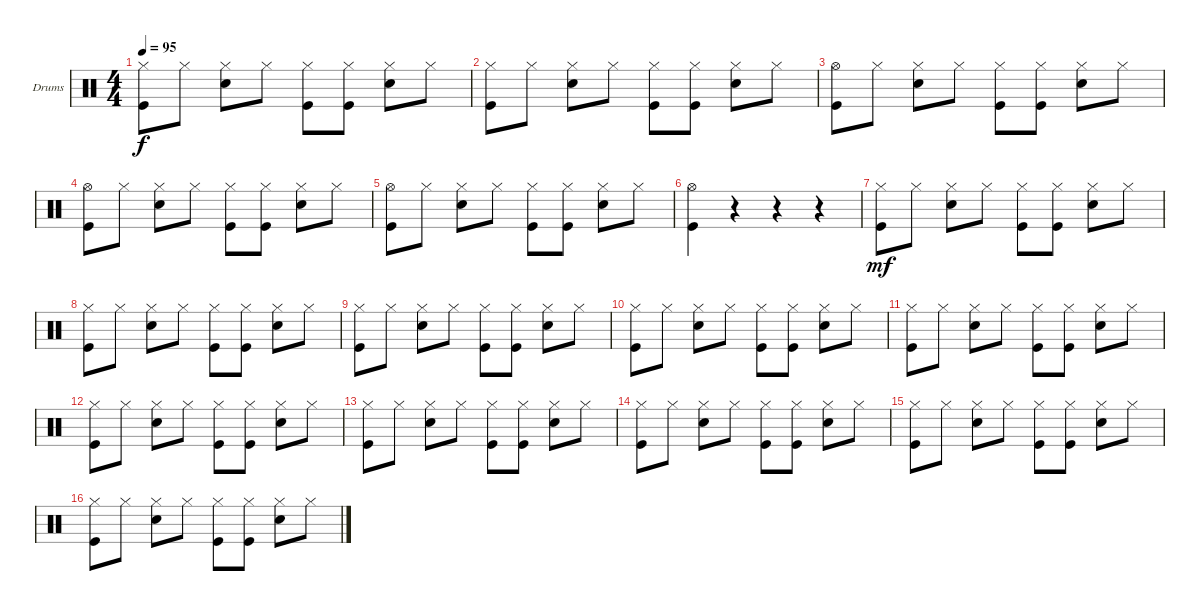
\defaultSystemsLayout 4
\bracketExtendMode groupsimilarinstruments
\firstSystemTrackNameOrientation horizontal
\otherSystemsTrackNameOrientation horizontal
\track ("Drumkit" "Drums") {instrument percussion}
\staff {score}
\articulation defaults
\ts (4 4)
\tempo 95
\clef neutral
\ks c
("Kick (hit)" "Hi-Hat (closed)").8{dy f} "Hi-Hat (closed)".8 ("Hi-Hat (closed)" "Snare (hit) 2").8 "Hi-Hat (closed)".8 ("Hi-Hat (closed)" "Kick (hit)").8 ("Hi-Hat (closed)" "Kick (hit)").8 ("Hi-Hat (closed)" "Snare (hit) 2").8 "Hi-Hat (closed)".8 |
("Kick (hit)" "Hi-Hat (closed)").8 "Hi-Hat (closed)".8 ("Hi-Hat (closed)" "Snare (hit) 2").8 "Hi-Hat (closed)".8 ("Hi-Hat (closed)" "Kick (hit)").8 ("Hi-Hat (closed)" "Kick (hit)").8 ("Hi-Hat (closed)" "Snare (hit) 2").8 "Hi-Hat (closed)".8 |
("Kick (hit)" "Hi-Hat (open)").8 "Hi-Hat (closed)".8 ("Hi-Hat (closed)" "Snare (hit) 2").8 "Hi-Hat (closed)".8 ("Hi-Hat (closed)" "Kick (hit)").8 ("Hi-Hat (closed)" "Kick (hit)").8 ("Hi-Hat (closed)" "Snare (hit) 2").8 "Hi-Hat (closed)".8 |
("Kick (hit)" "Hi-Hat (open)").8 "Hi-Hat (closed)".8 ("Hi-Hat (closed)" "Snare (hit) 2").8 "Hi-Hat (closed)".8 ("Hi-Hat (closed)" "Kick (hit)").8 ("Hi-Hat (closed)" "Kick (hit)").8 ("Hi-Hat (closed)" "Snare (hit) 2").8 "Hi-Hat (closed)".8 |
("Kick (hit)" "Hi-Hat (open)").8 "Hi-Hat (closed)".8 ("Hi-Hat (closed)" "Snare (hit) 2").8 "Hi-Hat (closed)".8 ("Hi-Hat (closed)" "Kick (hit)").8 ("Hi-Hat (closed)" "Kick (hit)").8 ("Hi-Hat (closed)" "Snare (hit) 2").8 "Hi-Hat (closed)".8 |
("Kick (hit)" "Hi-Hat (open)").4 r.4 r.4 r.4 |
("Kick (hit)" "Hi-Hat (closed)").8{dy mf} "Hi-Hat (closed)".8 ("Hi-Hat (closed)" "Snare (hit) 2").8 "Hi-Hat (closed)".8 ("Hi-Hat (closed)" "Kick (hit)").8 ("Hi-Hat (closed)" "Kick (hit)").8 ("Hi-Hat (closed)" "Snare (hit) 2").8 "Hi-Hat (closed)".8 |
("Kick (hit)" "Hi-Hat (closed)").8 "Hi-Hat (closed)".8 ("Hi-Hat (closed)" "Snare (hit) 2").8 "Hi-Hat (closed)".8 ("Hi-Hat (closed)" "Kick (hit)").8 ("Hi-Hat (closed)" "Kick (hit)").8 ("Hi-Hat (closed)" "Snare (hit) 2").8 "Hi-Hat (closed)".8 |
("Kick (hit)" "Hi-Hat (closed)").8 "Hi-Hat (closed)".8 ("Hi-Hat (closed)" "Snare (hit) 2").8 "Hi-Hat (closed)".8 ("Hi-Hat (closed)" "Kick (hit)").8 ("Hi-Hat (closed)" "Kick (hit)").8 ("Hi-Hat (closed)" "Snare (hit) 2").8 "Hi-Hat (closed)".8 |
("Kick (hit)" "Hi-Hat (closed)").8 "Hi-Hat (closed)".8 ("Hi-Hat (closed)" "Snare (hit) 2").8 "Hi-Hat (closed)".8 ("Hi-Hat (closed)" "Kick (hit)").8 ("Hi-Hat (closed)" "Kick (hit)").8 ("Hi-Hat (closed)" "Snare (hit) 2").8 "Hi-Hat (closed)".8 |
("Kick (hit)" "Hi-Hat (closed)").8 "Hi-Hat (closed)".8 ("Hi-Hat (closed)" "Snare (hit) 2").8 "Hi-Hat (closed)".8 ("Hi-Hat (closed)" "Kick (hit)").8 ("Hi-Hat (closed)" "Kick (hit)").8 ("Hi-Hat (closed)" "Snare (hit) 2").8 "Hi-Hat (closed)".8 |
("Kick (hit)" "Hi-Hat (closed)").8 "Hi-Hat (closed)".8 ("Hi-Hat (closed)" "Snare (hit) 2").8 "Hi-Hat (closed)".8 ("Hi-Hat (closed)" "Kick (hit)").8 ("Hi-Hat (closed)" "Kick (hit)").8 ("Hi-Hat (closed)" "Snare (hit) 2").8 "Hi-Hat (closed)".8 |
("Kick (hit)" "Hi-Hat (closed)").8 "Hi-Hat (closed)".8 ("Hi-Hat (closed)" "Snare (hit) 2").8 "Hi-Hat (closed)".8 ("Hi-Hat (closed)" "Kick (hit)").8 ("Hi-Hat (closed)" "Kick (hit)").8 ("Hi-Hat (closed)" "Snare (hit) 2").8 "Hi-Hat (closed)".8 |
("Kick (hit)" "Hi-Hat (closed)").8 "Hi-Hat (closed)".8 ("Hi-Hat (closed)" "Snare (hit) 2").8 "Hi-Hat (closed)".8 ("Hi-Hat (closed)" "Kick (hit)").8 ("Hi-Hat (closed)" "Kick (hit)").8 ("Hi-Hat (closed)" "Snare (hit) 2").8 "Hi-Hat (closed)".8 |
("Kick (hit)" "Hi-Hat (closed)").8 "Hi-Hat (closed)".8 ("Hi-Hat (closed)" "Snare (hit) 2").8 "Hi-Hat (closed)".8 ("Hi-Hat (closed)" "Kick (hit)").8 ("Hi-Hat (closed)" "Kick (hit)").8 ("Hi-Hat (closed)" "Snare (hit) 2").8 "Hi-Hat (closed)".8 |
("Kick (hit)" "Hi-Hat (closed)").8 "Hi-Hat (closed)".8 ("Hi-Hat (closed)" "Snare (hit) 2").8 "Hi-Hat (closed)".8 ("Hi-Hat (closed)" "Kick (hit)").8 ("Hi-Hat (closed)" "Kick (hit)").8 ("Hi-Hat (closed)" "Snare (hit) 2").8 "Hi-Hat (closed)".8
